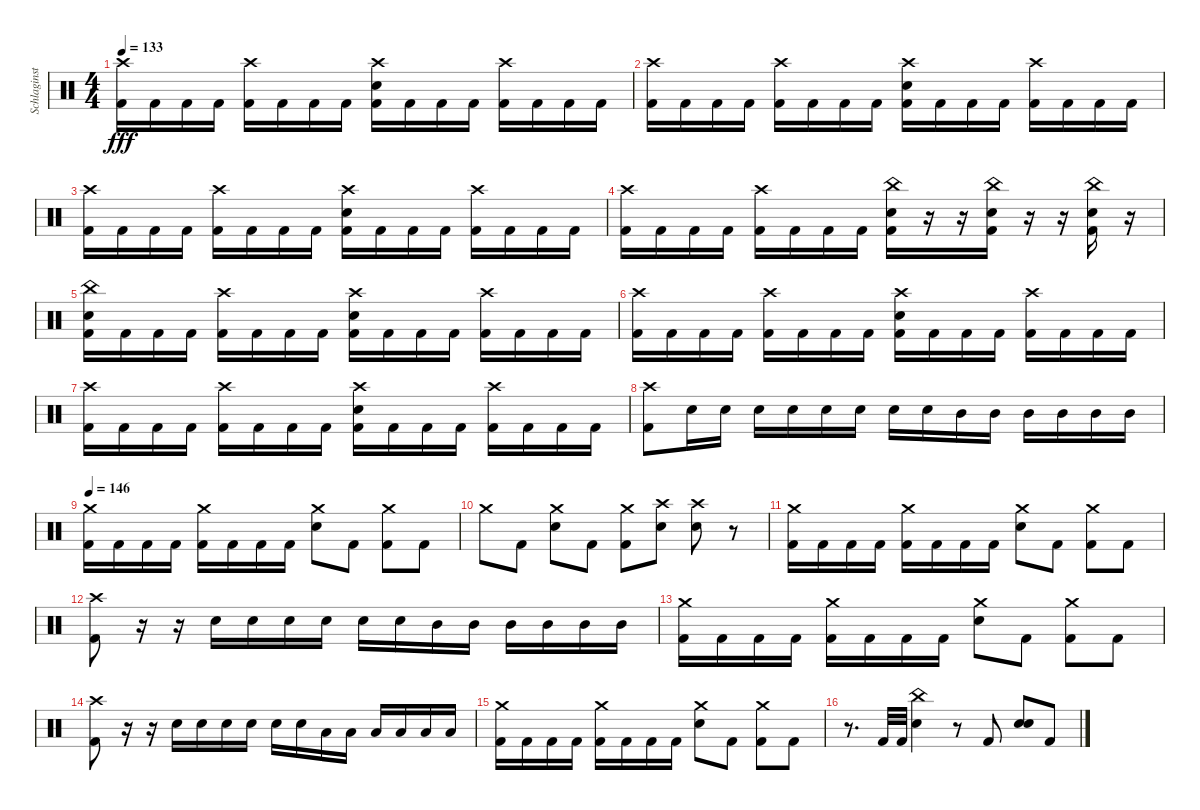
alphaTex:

\track ("Schlaginstrumente - Auswahl" "Schlaginst") {instrument percussion}
\staff {score}
\articulation defaults
\ts (4 4)
\tempo 133
\clef neutral
\ks c
("Crash high (hit)" "Kick (hit) 2").16{dy fff} "Kick (hit) 2".16 "Kick (hit) 2".16 "Kick (hit) 2".16 ("Crash high (hit)" "Kick (hit) 2").16 "Kick (hit) 2".16 "Kick (hit) 2".16 "Kick (hit) 2".16 ("Electric Snare (hit)" "Crash high (hit)" "Kick (hit) 2").16 "Kick (hit) 2".16 "Kick (hit) 2".16 "Kick (hit) 2".16 ("Crash high (hit)" "Kick (hit) 2").16 "Kick (hit) 2".16 "Kick (hit) 2".16 "Kick (hit) 2".16 |
("Crash high (hit)" "Kick (hit) 2").16 "Kick (hit) 2".16 "Kick (hit) 2".16 "Kick (hit) 2".16 ("Crash high (hit)" "Kick (hit) 2").16 "Kick (hit) 2".16 "Kick (hit) 2".16 "Kick (hit) 2".16 ("Electric Snare (hit)" "Crash high (hit)" "Kick (hit) 2").16 "Kick (hit) 2".16 "Kick (hit) 2".16 "Kick (hit) 2".16 ("Crash high (hit)" "Kick (hit) 2").16 "Kick (hit) 2".16 "Kick (hit) 2".16 "Kick (hit) 2".16 |
("Crash high (hit)" "Kick (hit) 2").16 "Kick (hit) 2".16 "Kick (hit) 2".16 "Kick (hit) 2".16 ("Crash high (hit)" "Kick (hit) 2").16 "Kick (hit) 2".16 "Kick (hit) 2".16 "Kick (hit) 2".16 ("Electric Snare (hit)" "Crash high (hit)" "Kick (hit) 2").16 "Kick (hit) 2".16 "Kick (hit) 2".16 "Kick (hit) 2".16 ("Crash high (hit)" "Kick (hit) 2").16 "Kick (hit) 2".16 "Kick (hit) 2".16 "Kick (hit) 2".16 |
("Crash high (hit)" "Kick (hit) 2").16 "Kick (hit) 2".16 "Kick (hit) 2".16 "Kick (hit) 2".16 ("Crash high (hit)" "Kick (hit) 2").16 "Kick (hit) 2".16 "Kick (hit) 2".16 "Kick (hit) 2".16 ("China (hit)" "Electric Snare (hit)" "Kick (hit) 2").16 r.16 r.16 ("China (hit)" "Electric Snare (hit)" "Kick (hit) 2").16 r.16 r.16 ("China (hit)" "Electric Snare (hit)" "Kick (hit) 2").16 r.16 |
("China (hit)" "Electric Snare (hit)" "Kick (hit) 2").16 "Kick (hit) 2".16 "Kick (hit) 2".16 "Kick (hit) 2".16 ("Crash high (hit)" "Kick (hit) 2").16 "Kick (hit) 2".16 "Kick (hit) 2".16 "Kick (hit) 2".16 ("Electric Snare (hit)" "Crash high (hit)" "Kick (hit) 2").16 "Kick (hit) 2".16 "Kick (hit) 2".16 "Kick (hit) 2".16 ("Crash high (hit)" "Kick (hit) 2").16 "Kick (hit) 2".16 "Kick (hit) 2".16 "Kick (hit) 2".16 |
("Crash high (hit)" "Kick (hit) 2").16 "Kick (hit) 2".16 "Kick (hit) 2".16 "Kick (hit) 2".16 ("Crash high (hit)" "Kick (hit) 2").16 "Kick (hit) 2".16 "Kick (hit) 2".16 "Kick (hit) 2".16 ("Electric Snare (hit)" "Crash high (hit)" "Kick (hit) 2").16 "Kick (hit) 2".16 "Kick (hit) 2".16 "Kick (hit) 2".16 ("Crash high (hit)" "Kick (hit) 2").16 "Kick (hit) 2".16 "Kick (hit) 2".16 "Kick (hit) 2".16 |
("Crash high (hit)" "Kick (hit) 2").16 "Kick (hit) 2".16 "Kick (hit) 2".16 "Kick (hit) 2".16 ("Crash high (hit)" "Kick (hit) 2").16 "Kick (hit) 2".16 "Kick (hit) 2".16 "Kick (hit) 2".16 ("Electric Snare (hit)" "Crash high (hit)" "Kick (hit) 2").16 "Kick (hit) 2".16 "Kick (hit) 2".16 "Kick (hit) 2".16 ("Crash high (hit)" "Kick (hit) 2").16 "Kick (hit) 2".16 "Kick (hit) 2".16 "Kick (hit) 2".16 |
("Crash high (hit)" "Kick (hit) 2").8 "Electric Snare (hit)".16 "Electric Snare (hit)".16 "Electric Snare (hit)".16 "Electric Snare (hit)".16 "Electric Snare (hit)".16 "Electric Snare (hit)".16 "Electric Snare (hit)".16 "Electric Snare (hit)".16 "Mid Tom (hit)".16 "Mid Tom (hit)".16 "Mid Tom (hit)".16 "Mid Tom (hit)".16 "Mid Tom (hit)".16 "Mid Tom (hit)".16 |
\tempo 146
("Crash medium (hit)" "Kick (hit) 2").16 "Kick (hit) 2".16 "Kick (hit) 2".16 "Kick (hit) 2".16 ("Crash medium (hit)" "Kick (hit) 2").16 "Kick (hit) 2".16 "Kick (hit) 2".16 "Kick (hit) 2".16 ("Crash medium (hit)" "Electric Snare (hit)").8 "Kick (hit) 2".8 ("Crash medium (hit)" "Kick (hit) 2").8 "Kick (hit) 2".8 |
"Crash medium (hit)".8 "Kick (hit) 2".8 ("Crash medium (hit)" "Electric Snare (hit)").8 "Kick (hit) 2".8 ("Crash medium (hit)" "Kick (hit) 2").8 ("Crash high (hit)" "Electric Snare (hit)").8 ("Crash high (hit)" "Electric Snare (hit)").8 r.8 |
("Crash medium (hit)" "Kick (hit) 2").16 "Kick (hit) 2".16 "Kick (hit) 2".16 "Kick (hit) 2".16 ("Crash medium (hit)" "Kick (hit) 2").16 "Kick (hit) 2".16 "Kick (hit) 2".16 "Kick (hit) 2".16 ("Crash medium (hit)" "Electric Snare (hit)").8 "Kick (hit) 2".8 ("Crash medium (hit)" "Kick (hit) 2").8 "Kick (hit) 2".8 |
("Crash high (hit)" "Kick (hit) 2").8 r.16 r.16 "Electric Snare (hit)".16 "Electric Snare (hit)".16 "Electric Snare (hit)".16 "Electric Snare (hit)".16 "Electric Snare (hit)".16 "Electric Snare (hit)".16 "Mid Tom (hit)".16 "Mid Tom (hit)".16 "Mid Tom (hit)".16 "Mid Tom (hit)".16 "Mid Tom (hit)".16 "Mid Tom (hit)".16 |
("Crash medium (hit)" "Kick (hit) 2").16 "Kick (hit) 2".16 "Kick (hit) 2".16 "Kick (hit) 2".16 ("Crash medium (hit)" "Kick (hit) 2").16 "Kick (hit) 2".16 "Kick (hit) 2".16 "Kick (hit) 2".16 ("Crash medium (hit)" "Electric Snare (hit)").8 "Kick (hit) 2".8 ("Crash medium (hit)" "Kick (hit) 2").8 "Kick (hit) 2".8 |
("Crash high (hit)" "Kick (hit) 2").8 r.16 r.16 "Electric Snare (hit)".16 "Electric Snare (hit)".16 "Electric Snare (hit)".16 "Electric Snare (hit)".16 "Electric Snare (hit)".16 "Electric Snare (hit)".16 "Low Tom (hit)".16 "Low Tom (hit)".16 "Low Tom (hit)".16 "Low Tom (hit)".16 "Low Tom (hit)".16 "Low Tom (hit)".16 |
("Crash medium (hit)" "Kick (hit) 2").16 "Kick (hit) 2".16 "Kick (hit) 2".16 "Kick (hit) 2".16 ("Crash medium (hit)" "Kick (hit) 2").16 "Kick (hit) 2".16 "Kick (hit) 2".16 "Kick (hit) 2".16 ("Crash medium (hit)" "Electric Snare (hit)").8 "Kick (hit) 2".8 ("Crash medium (hit)" "Kick (hit) 2").8 "Kick (hit) 2".8 |
r.8{d} "Kick (hit) 2".32 "Kick (hit) 2".32 ("Electric Snare (hit)" "China (hit)").4 r.8 "Kick (hit) 2".8 ("Electric Snare (hit)" "Electric Snare (hit)").8 "Kick (hit) 2".8
